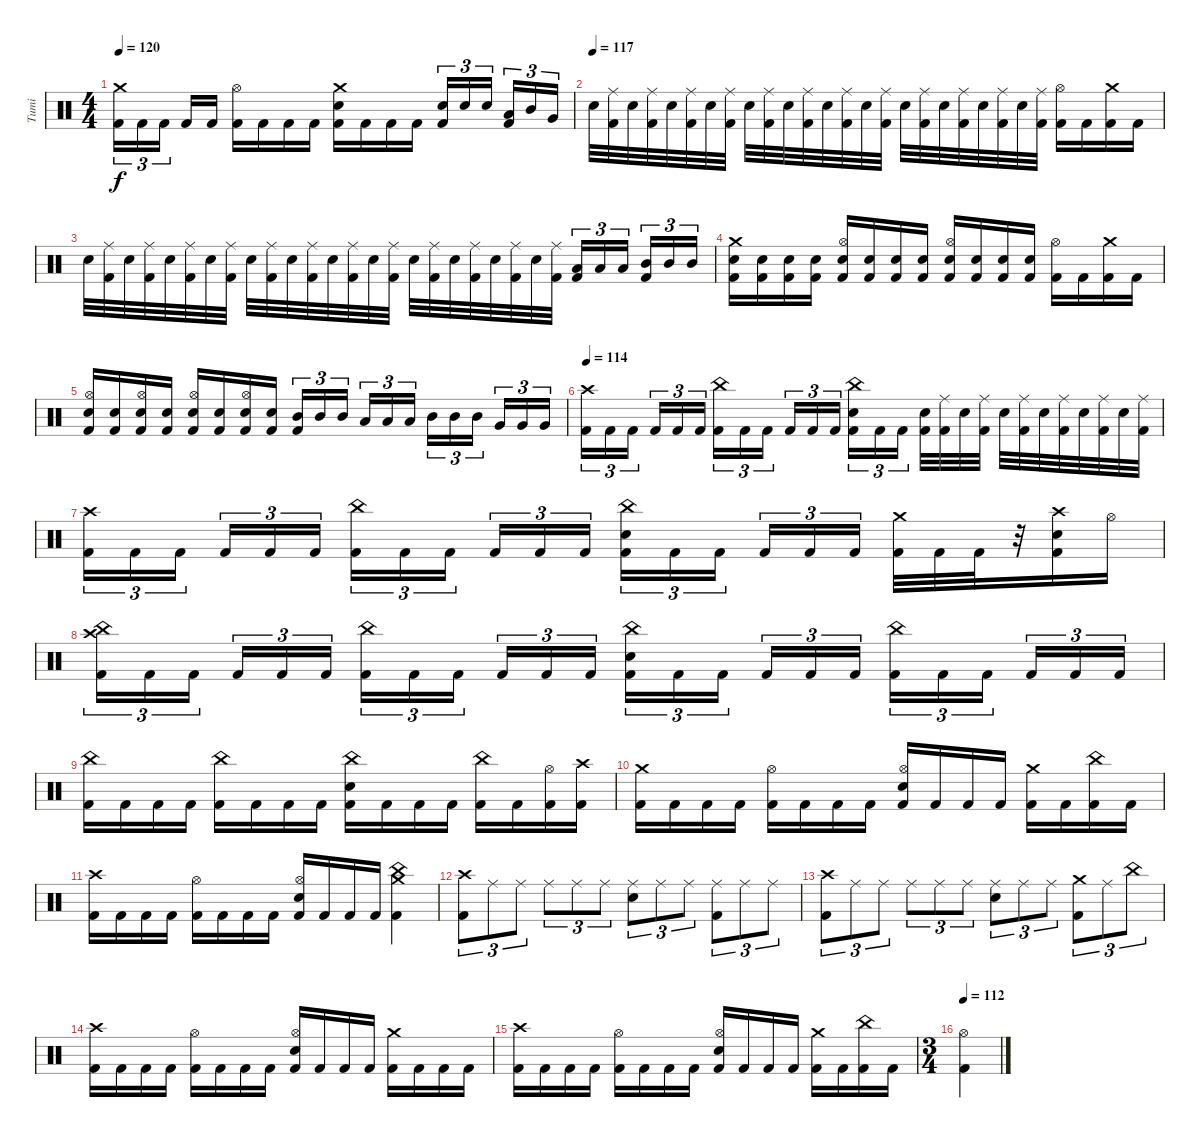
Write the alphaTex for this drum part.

\track ("Tumi" "Tumi") {instrument percussion}
\staff {score}
\articulation defaults
\ts (4 4)
\tempo 120
\clef neutral
\ks c
("Crash medium (hit)" "Kick (hit) 2").16{tu (3 2) dy f} "Kick (hit) 2".16{tu (3 2)} "Kick (hit) 2".16{tu (3 2) beam splitsecondary} "Kick (hit) 2".16 "Kick (hit) 2".16 ("Hi-Hat (open)" "Kick (hit) 2").16 "Kick (hit) 2".16 "Kick (hit) 2".16 "Kick (hit) 2".16 ("Crash medium (hit)" "Electric Snare (hit)" "Kick (hit) 2").16 "Kick (hit) 2".16 "Kick (hit) 2".16 "Kick (hit) 2".16 ("Electric Snare (hit)" "Kick (hit) 2").16{tu (3 2)} "Electric Snare (hit)".16{tu (3 2)} "Electric Snare (hit)".16{tu (3 2) beam splitsecondary} ("Low Tom (hit)" "Kick (hit) 2").16{tu (3 2)} "Mid Tom (hit)".16{tu (3 2)} "Very Low Tom (hit)".16{tu (3 2)} |
\tempo (117)
"Electric Snare (hit)".32 ("Ride (middle)" "Kick (hit) 2").32 "Electric Snare (hit)".32 ("Ride (middle)" "Kick (hit) 2").32 "Electric Snare (hit)".32 ("Ride (middle)" "Kick (hit) 2").32 "Electric Snare (hit)".32 ("Ride (middle)" "Kick (hit) 2").32 "Electric Snare (hit)".32 ("Ride (middle)" "Kick (hit) 2").32 "Electric Snare (hit)".32 ("Ride (middle)" "Kick (hit) 2").32 "Electric Snare (hit)".32 ("Ride (middle)" "Kick (hit) 2").32 "Electric Snare (hit)".32 ("Ride (middle)" "Kick (hit) 2").32 "Electric Snare (hit)".32 ("Ride (middle)" "Kick (hit) 2").32 "Electric Snare (hit)".32 ("Ride (middle)" "Kick (hit) 2").32 "Electric Snare (hit)".32 ("Ride (middle)" "Kick (hit) 2").32 "Electric Snare (hit)".32 ("Ride (middle)" "Kick (hit) 2").32 ("Hi-Hat (open)" "Kick (hit) 2").16 "Kick (hit) 2".16 ("Crash medium (hit)" "Kick (hit) 2").16 "Kick (hit) 2".16 |
"Electric Snare (hit)".32 ("Ride (middle)" "Kick (hit) 2").32 "Electric Snare (hit)".32 ("Ride (middle)" "Kick (hit) 2").32 "Electric Snare (hit)".32 ("Ride (middle)" "Kick (hit) 2").32 "Electric Snare (hit)".32 ("Ride (middle)" "Kick (hit) 2").32 "Electric Snare (hit)".32 ("Ride (middle)" "Kick (hit) 2").32 "Electric Snare (hit)".32 ("Ride (middle)" "Kick (hit) 2").32 "Electric Snare (hit)".32 ("Ride (middle)" "Kick (hit) 2").32 "Electric Snare (hit)".32 ("Ride (middle)" "Kick (hit) 2").32 "Electric Snare (hit)".32 ("Ride (middle)" "Kick (hit) 2").32 "Electric Snare (hit)".32 ("Ride (middle)" "Kick (hit) 2").32 "Electric Snare (hit)".32 ("Ride (middle)" "Kick (hit) 2").32 "Electric Snare (hit)".32 ("Ride (middle)" "Kick (hit) 2").32 ("Low Tom (hit)" "Kick (hit) 2").16{tu (3 2)} "Low Tom (hit)".16{tu (3 2)} "Low Tom (hit)".16{tu (3 2) beam splitsecondary} ("Mid Tom (hit)" "Kick (hit) 2").16{tu (3 2)} "Mid Tom (hit)".16{tu (3 2)} "Mid Tom (hit)".16{tu (3 2)} |
("Crash medium (hit)" "Electric Snare (hit)" "Kick (hit) 2").16 ("Electric Snare (hit)" "Kick (hit) 2").16 ("Electric Snare (hit)" "Kick (hit) 2").16 ("Electric Snare (hit)" "Kick (hit) 2").16 ("Hi-Hat (open)" "Electric Snare (hit)" "Kick (hit) 2").16 ("Electric Snare (hit)" "Kick (hit) 2").16 ("Electric Snare (hit)" "Kick (hit) 2").16 ("Electric Snare (hit)" "Kick (hit) 2").16 ("Hi-Hat (open)" "Electric Snare (hit)" "Kick (hit) 2").16 ("Electric Snare (hit)" "Kick (hit) 2").16 ("Electric Snare (hit)" "Kick (hit) 2").16 ("Electric Snare (hit)" "Kick (hit) 2").16 ("Hi-Hat (open)" "Kick (hit) 2").16 "Kick (hit) 2".16 ("Crash medium (hit)" "Kick (hit) 2").16 "Kick (hit) 2".16 |
("Hi-Hat (open)" "Electric Snare (hit)" "Kick (hit) 2").16 ("Electric Snare (hit)" "Kick (hit) 2").16 ("Hi-Hat (open)" "Electric Snare (hit)" "Kick (hit) 2").16 ("Electric Snare (hit)" "Kick (hit) 2").16 ("Hi-Hat (open)" "Electric Snare (hit)" "Kick (hit) 2").16 ("Electric Snare (hit)" "Kick (hit) 2").16 ("Hi-Hat (open)" "Electric Snare (hit)" "Kick (hit) 2").16 ("Electric Snare (hit)" "Kick (hit) 2").16 ("Mid Tom (hit)" "Kick (hit) 2").16{tu (3 2)} "Mid Tom (hit)".16{tu (3 2)} "Mid Tom (hit)".16{tu (3 2) beam splitsecondary} "Low Tom (hit)".16{tu (3 2)} "Low Tom (hit)".16{tu (3 2)} "Low Tom (hit)".16{tu (3 2)} "Mid Tom (hit)".16{tu (3 2)} "Mid Tom (hit)".16{tu (3 2)} "Mid Tom (hit)".16{tu (3 2) beam splitsecondary} "Very Low Tom (hit)".16{tu (3 2)} "Very Low Tom (hit)".16{tu (3 2)} "Very Low Tom (hit)".16{tu (3 2)} |
\tempo 114
("Crash high (hit)" "Kick (hit) 2").16{tu (3 2)} "Kick (hit) 2".16{tu (3 2)} "Kick (hit) 2".16{tu (3 2) beam splitsecondary} "Kick (hit) 2".16{tu (3 2)} "Kick (hit) 2".16{tu (3 2)} "Kick (hit) 2".16{tu (3 2)} ("China (hit)" "Kick (hit) 2").16{tu (3 2)} "Kick (hit) 2".16{tu (3 2)} "Kick (hit) 2".16{tu (3 2) beam splitsecondary} "Kick (hit) 2".16{tu (3 2)} "Kick (hit) 2".16{tu (3 2)} "Kick (hit) 2".16{tu (3 2)} ("China (hit)" "Electric Snare (hit)" "Kick (hit) 2").16{tu (3 2)} "Kick (hit) 2".16{tu (3 2)} "Kick (hit) 2".16{tu (3 2) beam splitsecondary} ("Electric Snare (hit)" "Kick (hit) 2").32 ("Ride (middle)" "Kick (hit) 2").32 "Electric Snare (hit)".32 ("Ride (middle)" "Kick (hit) 2").32 "Electric Snare (hit)".32 ("Ride (middle)" "Kick (hit) 2").32 "Electric Snare (hit)".32 ("Ride (middle)" "Kick (hit) 2").32 "Electric Snare (hit)".32 ("Ride (middle)" "Kick (hit) 2").32 "Electric Snare (hit)".32 ("Ride (middle)" "Kick (hit) 2").32 |
("Crash high (hit)" "Kick (hit) 2").16{tu (3 2)} "Kick (hit) 2".16{tu (3 2)} "Kick (hit) 2".16{tu (3 2) beam splitsecondary} "Kick (hit) 2".16{tu (3 2)} "Kick (hit) 2".16{tu (3 2)} "Kick (hit) 2".16{tu (3 2)} ("China (hit)" "Kick (hit) 2").16{tu (3 2)} "Kick (hit) 2".16{tu (3 2)} "Kick (hit) 2".16{tu (3 2) beam splitsecondary} "Kick (hit) 2".16{tu (3 2)} "Kick (hit) 2".16{tu (3 2)} "Kick (hit) 2".16{tu (3 2)} ("China (hit)" "Electric Snare (hit)" "Kick (hit) 2").16{tu (3 2)} "Kick (hit) 2".16{tu (3 2)} "Kick (hit) 2".16{tu (3 2) beam splitsecondary} "Kick (hit) 2".16{tu (3 2)} "Kick (hit) 2".16{tu (3 2)} "Kick (hit) 2".16{tu (3 2)} ("Crash medium (hit)" "Kick (hit) 2").32 "Kick (hit) 2".32 "Kick (hit) 2".32 r.32 ("Crash high (hit)" "Electric Snare (hit)" "Kick (hit) 2").16 "Hi-Hat (open)".16 |
("China (hit)" "Crash high (hit)" "Kick (hit) 2").16{tu (3 2)} "Kick (hit) 2".16{tu (3 2)} "Kick (hit) 2".16{tu (3 2) beam splitsecondary} "Kick (hit) 2".16{tu (3 2)} "Kick (hit) 2".16{tu (3 2)} "Kick (hit) 2".16{tu (3 2)} ("China (hit)" "Kick (hit) 2").16{tu (3 2)} "Kick (hit) 2".16{tu (3 2)} "Kick (hit) 2".16{tu (3 2) beam splitsecondary} "Kick (hit) 2".16{tu (3 2)} "Kick (hit) 2".16{tu (3 2)} "Kick (hit) 2".16{tu (3 2)} ("China (hit)" "Electric Snare (hit)" "Kick (hit) 2").16{tu (3 2)} "Kick (hit) 2".16{tu (3 2)} "Kick (hit) 2".16{tu (3 2) beam splitsecondary} "Kick (hit) 2".16{tu (3 2)} "Kick (hit) 2".16{tu (3 2)} "Kick (hit) 2".16{tu (3 2)} ("China (hit)" "Kick (hit) 2").16{tu (3 2)} "Kick (hit) 2".16{tu (3 2)} "Kick (hit) 2".16{tu (3 2) beam splitsecondary} "Kick (hit) 2".16{tu (3 2)} "Kick (hit) 2".16{tu (3 2)} "Kick (hit) 2".16{tu (3 2)} |
("China (hit)" "Kick (hit) 2").16 "Kick (hit) 2".16 "Kick (hit) 2".16 "Kick (hit) 2".16 ("China (hit)" "Kick (hit) 2").16 "Kick (hit) 2".16 "Kick (hit) 2".16 "Kick (hit) 2".16 ("China (hit)" "Electric Snare (hit)" "Kick (hit) 2").16 "Kick (hit) 2".16 "Kick (hit) 2".16 "Kick (hit) 2".16 ("China (hit)" "Kick (hit) 2").16 "Kick (hit) 2".16 ("Hi-Hat (open)" "Kick (hit) 2").16 ("Crash high (hit)" "Kick (hit) 2").16 |
("Crash medium (hit)" "Kick (hit) 2").16 "Kick (hit) 2".16 "Kick (hit) 2".16 "Kick (hit) 2".16 ("Hi-Hat (open)" "Kick (hit) 2").16 "Kick (hit) 2".16 "Kick (hit) 2".16 "Kick (hit) 2".16 ("Hi-Hat (open)" "Electric Snare (hit)" "Kick (hit) 2").16 "Kick (hit) 2".16 "Kick (hit) 2".16 "Kick (hit) 2".16 ("Crash medium (hit)" "Kick (hit) 2").16 "Kick (hit) 2".16 ("China (hit)" "Kick (hit) 2").16 "Kick (hit) 2".16 |
("Crash high (hit)" "Kick (hit) 2").16 "Kick (hit) 2".16 "Kick (hit) 2".16 "Kick (hit) 2".16 ("Hi-Hat (open)" "Kick (hit) 2").16 "Kick (hit) 2".16 "Kick (hit) 2".16 "Kick (hit) 2".16 ("Hi-Hat (open)" "Electric Snare (hit)" "Kick (hit) 2").16 "Kick (hit) 2".16 "Kick (hit) 2".16 "Kick (hit) 2".16 ("Crash medium (hit)" "China (hit)" "Kick (hit) 2").4 |
("Crash high (hit)" "Kick (hit) 2").8{tu (3 2)} "Ride (middle)".8{tu (3 2)} "Ride (middle)".8{tu (3 2)} "Ride (middle)".8{tu (3 2)} "Ride (middle)".8{tu (3 2)} "Ride (middle)".8{tu (3 2)} ("Ride (middle)" "Electric Snare (hit)").8{tu (3 2)} "Ride (middle)".8{tu (3 2)} "Ride (middle)".8{tu (3 2)} ("Ride (middle)" "Kick (hit) 2").8{tu (3 2)} "Ride (middle)".8{tu (3 2)} "Ride (middle)".8{tu (3 2)} |
("Crash high (hit)" "Kick (hit) 2").8{tu (3 2)} "Ride (middle)".8{tu (3 2)} "Ride (middle)".8{tu (3 2)} "Ride (middle)".8{tu (3 2)} "Ride (middle)".8{tu (3 2)} "Ride (middle)".8{tu (3 2)} ("Ride (middle)" "Electric Snare (hit)").8{tu (3 2)} "Ride (middle)".8{tu (3 2)} "Ride (middle)".8{tu (3 2)} ("Crash medium (hit)" "Kick (hit) 2").8{tu (3 2)} "Ride (middle)".8{tu (3 2)} "China (hit)".8{tu (3 2)} |
("Crash high (hit)" "Kick (hit) 2").16 "Kick (hit) 2".16 "Kick (hit) 2".16 "Kick (hit) 2".16 ("Hi-Hat (open)" "Kick (hit) 2").16 "Kick (hit) 2".16 "Kick (hit) 2".16 "Kick (hit) 2".16 ("Hi-Hat (open)" "Electric Snare (hit)" "Kick (hit) 2").16 "Kick (hit) 2".16 "Kick (hit) 2".16 "Kick (hit) 2".16 ("Crash medium (hit)" "Kick (hit) 2").16 "Kick (hit) 2".16 "Kick (hit) 2".16 "Kick (hit) 2".16 |
("Crash high (hit)" "Kick (hit) 2").16 "Kick (hit) 2".16 "Kick (hit) 2".16 "Kick (hit) 2".16 ("Hi-Hat (open)" "Kick (hit) 2").16 "Kick (hit) 2".16 "Kick (hit) 2".16 "Kick (hit) 2".16 ("Hi-Hat (open)" "Electric Snare (hit)" "Kick (hit) 2").16 "Kick (hit) 2".16 "Kick (hit) 2".16 "Kick (hit) 2".16 ("Crash medium (hit)" "Kick (hit) 2").16 "Kick (hit) 2".16 ("China (hit)" "Kick (hit) 2").16 "Kick (hit) 2".16 |
\ts (3 4)
\tempo 112
("Hi-Hat (open)" "Kick (hit) 2").4
